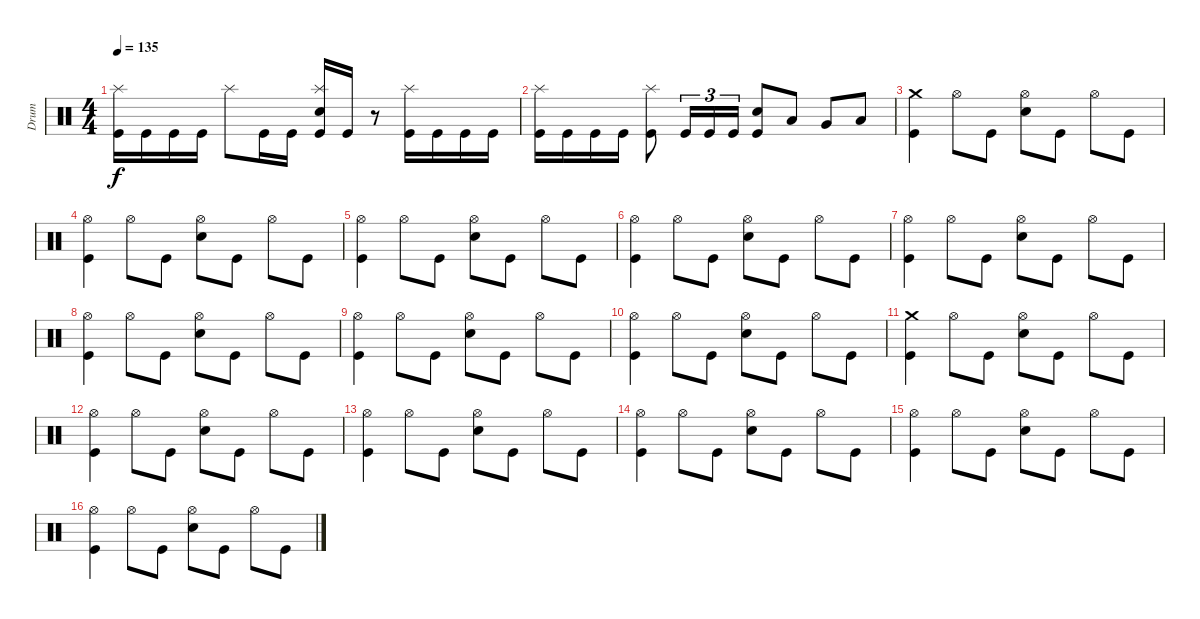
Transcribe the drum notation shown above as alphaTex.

\track ("Drum" "Drum") {instrument percussion}
\staff {score}
\articulation defaults
\ts (4 4)
\tempo 135
\clef neutral
\ks c
("Kick (hit)" "Splash (hit)").16{dy f} "Kick (hit)".16 "Kick (hit)".16 "Kick (hit)".16 "Splash (hit)".8 "Kick (hit)".16 "Kick (hit)".16 ("Kick (hit)" "Electric Snare (hit)" "Splash (hit)").16 "Kick (hit)".16 r.8 ("Kick (hit)" "Splash (hit)").16 "Kick (hit)".16 "Kick (hit)".16 "Kick (hit)".16 |
("Kick (hit)" "Splash (hit)").16 "Kick (hit)".16 "Kick (hit)".16 "Kick (hit)".16 ("Kick (hit)" "Splash (hit)").8 "Kick (hit)".16{tu (3 2)} "Kick (hit)".16{tu (3 2)} "Kick (hit)".16{tu (3 2)} ("Kick (hit)" "Electric Snare (hit)").8 "Low Tom (hit)".8 "Very Low Tom (hit)".8 "Low Floor Tom (hit)".8 |
("Kick (hit)" "Crash medium (hit)").4 "Hi-Hat (open)".8 "Kick (hit)".8 ("Electric Snare (hit)" "Hi-Hat (open)").8 "Kick (hit)".8 "Hi-Hat (open)".8 "Kick (hit)".8 |
("Kick (hit)" "Hi-Hat (open)").4 "Hi-Hat (open)".8 "Kick (hit)".8 ("Electric Snare (hit)" "Hi-Hat (open)").8 "Kick (hit)".8 "Hi-Hat (open)".8 "Kick (hit)".8 |
("Kick (hit)" "Hi-Hat (open)").4 "Hi-Hat (open)".8 "Kick (hit)".8 ("Electric Snare (hit)" "Hi-Hat (open)").8 "Kick (hit)".8 "Hi-Hat (open)".8 "Kick (hit)".8 |
("Kick (hit)" "Hi-Hat (open)").4 "Hi-Hat (open)".8 "Kick (hit)".8 ("Electric Snare (hit)" "Hi-Hat (open)").8 "Kick (hit)".8 "Hi-Hat (open)".8 "Kick (hit)".8 |
("Kick (hit)" "Hi-Hat (open)").4 "Hi-Hat (open)".8 "Kick (hit)".8 ("Electric Snare (hit)" "Hi-Hat (open)").8 "Kick (hit)".8 "Hi-Hat (open)".8 "Kick (hit)".8 |
("Kick (hit)" "Hi-Hat (open)").4 "Hi-Hat (open)".8 "Kick (hit)".8 ("Electric Snare (hit)" "Hi-Hat (open)").8 "Kick (hit)".8 "Hi-Hat (open)".8 "Kick (hit)".8 |
("Kick (hit)" "Hi-Hat (open)").4 "Hi-Hat (open)".8 "Kick (hit)".8 ("Electric Snare (hit)" "Hi-Hat (open)").8 "Kick (hit)".8 "Hi-Hat (open)".8 "Kick (hit)".8 |
("Kick (hit)" "Hi-Hat (open)").4 "Hi-Hat (open)".8 "Kick (hit)".8 ("Electric Snare (hit)" "Hi-Hat (open)").8 "Kick (hit)".8 "Hi-Hat (open)".8 "Kick (hit)".8 |
("Kick (hit)" "Crash medium (hit)").4 "Hi-Hat (open)".8 "Kick (hit)".8 ("Electric Snare (hit)" "Hi-Hat (open)").8 "Kick (hit)".8 "Hi-Hat (open)".8 "Kick (hit)".8 |
("Kick (hit)" "Hi-Hat (open)").4 "Hi-Hat (open)".8 "Kick (hit)".8 ("Electric Snare (hit)" "Hi-Hat (open)").8 "Kick (hit)".8 "Hi-Hat (open)".8 "Kick (hit)".8 |
("Kick (hit)" "Hi-Hat (open)").4 "Hi-Hat (open)".8 "Kick (hit)".8 ("Electric Snare (hit)" "Hi-Hat (open)").8 "Kick (hit)".8 "Hi-Hat (open)".8 "Kick (hit)".8 |
("Kick (hit)" "Hi-Hat (open)").4 "Hi-Hat (open)".8 "Kick (hit)".8 ("Electric Snare (hit)" "Hi-Hat (open)").8 "Kick (hit)".8 "Hi-Hat (open)".8 "Kick (hit)".8 |
("Kick (hit)" "Hi-Hat (open)").4 "Hi-Hat (open)".8 "Kick (hit)".8 ("Electric Snare (hit)" "Hi-Hat (open)").8 "Kick (hit)".8 "Hi-Hat (open)".8 "Kick (hit)".8 |
("Kick (hit)" "Hi-Hat (open)").4 "Hi-Hat (open)".8 "Kick (hit)".8 ("Electric Snare (hit)" "Hi-Hat (open)").8 "Kick (hit)".8 "Hi-Hat (open)".8 "Kick (hit)".8
